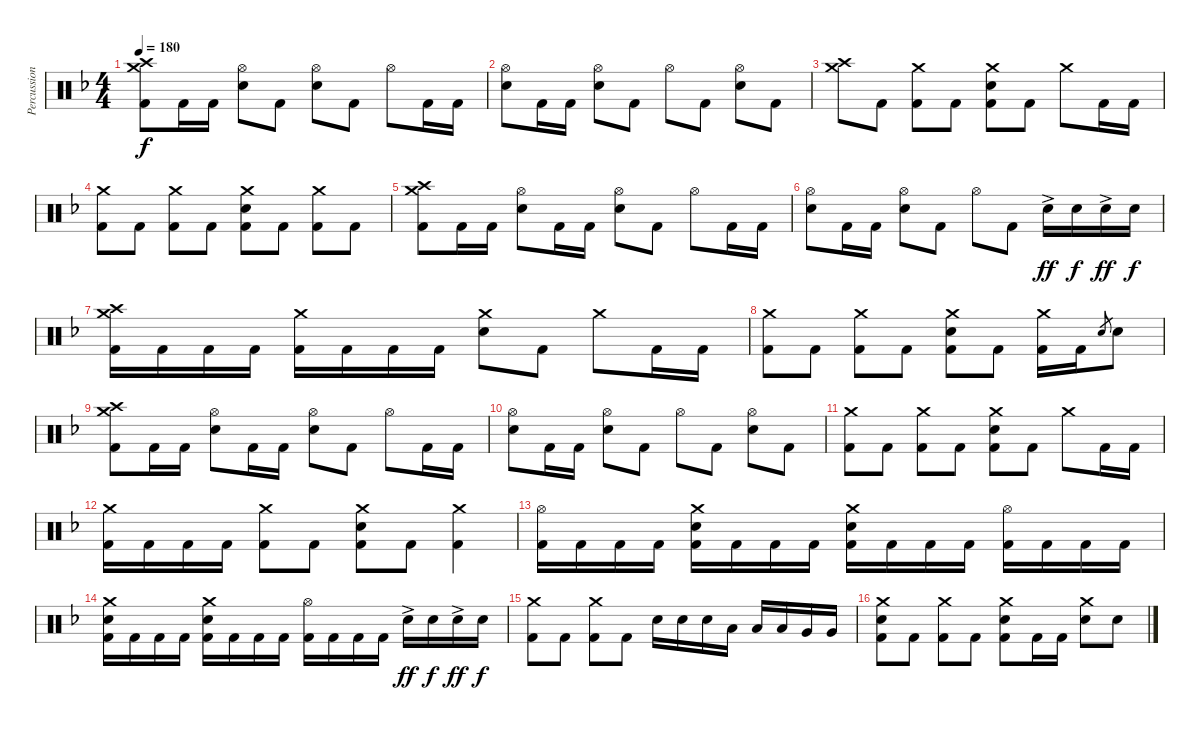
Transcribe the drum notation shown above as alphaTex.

\track ("Percussion" "Percussion") {instrument percussion}
\staff {score}
\articulation defaults
\ts (4 4)
\tempo 180
\clef neutral
\ks f
("Crash medium (hit)" "Crash high (hit)" "Kick (hit) 2").8{dy f} "Kick (hit) 2".16 "Kick (hit) 2".16 ("Hi-Hat (open)" "Electric Snare (hit)").8 "Kick (hit) 2".8 ("Hi-Hat (open)" "Electric Snare (hit)").8 "Kick (hit) 2".8 "Hi-Hat (open)".8 "Kick (hit) 2".16 "Kick (hit) 2".16 |
("Hi-Hat (open)" "Electric Snare (hit)").8 "Kick (hit) 2".16 "Kick (hit) 2".16 ("Hi-Hat (open)" "Electric Snare (hit)").8 "Kick (hit) 2".8 "Hi-Hat (open)".8 "Kick (hit) 2".8 ("Hi-Hat (open)" "Electric Snare (hit)").8 "Kick (hit) 2".8 |
("Crash medium (hit)" "Crash high (hit)").8 "Kick (hit) 2".8 ("Crash medium (hit)" "Kick (hit) 2").8 "Kick (hit) 2".8 ("Crash medium (hit)" "Electric Snare (hit)" "Kick (hit) 2").8 "Kick (hit) 2".8 "Crash medium (hit)".8 "Kick (hit) 2".16 "Kick (hit) 2".16 |
("Crash medium (hit)" "Kick (hit) 2").8 "Kick (hit) 2".8 ("Crash medium (hit)" "Kick (hit) 2").8 "Kick (hit) 2".8 ("Crash medium (hit)" "Electric Snare (hit)" "Kick (hit) 2").8 "Kick (hit) 2".8 ("Crash medium (hit)" "Kick (hit) 2").8 "Kick (hit) 2".8 |
("Crash medium (hit)" "Crash high (hit)" "Kick (hit) 2").8 "Kick (hit) 2".16 "Kick (hit) 2".16 ("Hi-Hat (open)" "Electric Snare (hit)").8 "Kick (hit) 2".16 "Kick (hit) 2".16 ("Hi-Hat (open)" "Electric Snare (hit)").8 "Kick (hit) 2".8 "Hi-Hat (open)".8 "Kick (hit) 2".16 "Kick (hit) 2".16 |
("Hi-Hat (open)" "Electric Snare (hit)").8 "Kick (hit) 2".16 "Kick (hit) 2".16 ("Hi-Hat (open)" "Electric Snare (hit)").8 "Kick (hit) 2".8 "Hi-Hat (open)".8 "Kick (hit) 2".8 "Electric Snare (hit)"{ac}.16{dy ff} "Electric Snare (hit)".16{dy f} "Electric Snare (hit)"{ac}.16{dy ff} "Electric Snare (hit)".16{dy f} |
("Crash medium (hit)" "Crash high (hit)" "Kick (hit) 2").16 "Kick (hit) 2".16 "Kick (hit) 2".16 "Kick (hit) 2".16 ("Crash medium (hit)" "Kick (hit) 2").16 "Kick (hit) 2".16 "Kick (hit) 2".16 "Kick (hit) 2".16 ("Crash medium (hit)" "Electric Snare (hit)").8 "Kick (hit) 2".8 "Crash medium (hit)".8 "Kick (hit) 2".16 "Kick (hit) 2".16 |
("Crash medium (hit)" "Kick (hit) 2").8 "Kick (hit) 2".8 ("Crash medium (hit)" "Kick (hit) 2").8 "Kick (hit) 2".8 ("Crash medium (hit)" "Electric Snare (hit)" "Kick (hit) 2").8 "Kick (hit) 2".8 ("Crash medium (hit)" "Kick (hit) 2").16 "Kick (hit) 2".16 "Electric Snare (hit)".8{gr} "Electric Snare (hit)".8 |
("Crash medium (hit)" "Crash high (hit)" "Kick (hit) 2").8 "Kick (hit) 2".16 "Kick (hit) 2".16 ("Hi-Hat (open)" "Electric Snare (hit)").8 "Kick (hit) 2".16 "Kick (hit) 2".16 ("Hi-Hat (open)" "Electric Snare (hit)").8 "Kick (hit) 2".8 "Hi-Hat (open)".8 "Kick (hit) 2".16 "Kick (hit) 2".16 |
("Hi-Hat (open)" "Electric Snare (hit)").8 "Kick (hit) 2".16 "Kick (hit) 2".16 ("Hi-Hat (open)" "Electric Snare (hit)").8 "Kick (hit) 2".8 "Hi-Hat (open)".8 "Kick (hit) 2".8 ("Hi-Hat (open)" "Electric Snare (hit)").8 "Kick (hit) 2".8 |
("Crash medium (hit)" "Kick (hit) 2").8 "Kick (hit) 2".8 ("Crash medium (hit)" "Kick (hit) 2").8 "Kick (hit) 2".8 ("Crash medium (hit)" "Electric Snare (hit)" "Kick (hit) 2").8 "Kick (hit) 2".8 "Crash medium (hit)".8 "Kick (hit) 2".16 "Kick (hit) 2".16 |
("Crash medium (hit)" "Kick (hit) 2").16 "Kick (hit) 2".16 "Kick (hit) 2".16 "Kick (hit) 2".16 ("Crash medium (hit)" "Kick (hit) 2").8 "Kick (hit) 2".8 ("Crash medium (hit)" "Electric Snare (hit)" "Kick (hit) 2").8 "Kick (hit) 2".8 ("Crash medium (hit)" "Kick (hit) 2").4 |
("Hi-Hat (open)" "Kick (hit) 2").16 "Kick (hit) 2".16 "Kick (hit) 2".16 "Kick (hit) 2".16 ("Crash medium (hit)" "Electric Snare (hit)" "Kick (hit) 2").16 "Kick (hit) 2".16 "Kick (hit) 2".16 "Kick (hit) 2".16 ("Crash medium (hit)" "Electric Snare (hit)" "Kick (hit) 2").16 "Kick (hit) 2".16 "Kick (hit) 2".16 "Kick (hit) 2".16 ("Hi-Hat (open)" "Kick (hit) 2").16 "Kick (hit) 2".16 "Kick (hit) 2".16 "Kick (hit) 2".16 |
("Crash medium (hit)" "Electric Snare (hit)" "Kick (hit) 2").16 "Kick (hit) 2".16 "Kick (hit) 2".16 "Kick (hit) 2".16 ("Crash medium (hit)" "Electric Snare (hit)" "Kick (hit) 2").16 "Kick (hit) 2".16 "Kick (hit) 2".16 "Kick (hit) 2".16 ("Hi-Hat (open)" "Kick (hit) 2").16 "Kick (hit) 2".16 "Kick (hit) 2".16 "Kick (hit) 2".16 "Electric Snare (hit)"{ac}.16{dy ff} "Electric Snare (hit)".16{dy f} "Electric Snare (hit)"{ac}.16{dy ff} "Electric Snare (hit)".16{dy f} |
("Crash medium (hit)" "Kick (hit) 2").8 "Kick (hit) 2".8 ("Crash medium (hit)" "Kick (hit) 2").8 "Kick (hit) 2".8 "Electric Snare (hit)".16 "Electric Snare (hit)".16 "Electric Snare (hit)".16 "Low Tom (hit)".16 "Low Tom (hit)".16 "Low Tom (hit)".16 "Very Low Tom (hit)".16 "Very Low Tom (hit)".16 |
("Crash medium (hit)" "Electric Snare (hit)" "Kick (hit) 2").8 "Kick (hit) 2".8 ("Crash medium (hit)" "Kick (hit) 2").8 "Kick (hit) 2".8 ("Crash medium (hit)" "Electric Snare (hit)" "Kick (hit) 2").8 "Kick (hit) 2".16 "Kick (hit) 2".16 ("Crash medium (hit)" "Electric Snare (hit)").8 "Electric Snare (hit)".8
